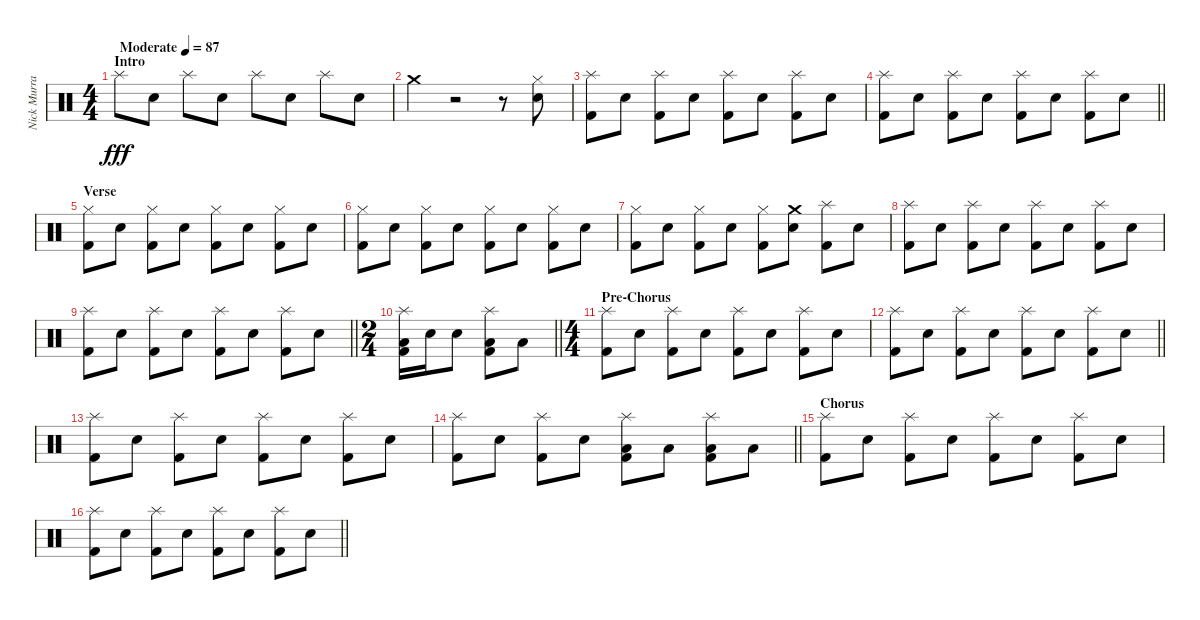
\track ("Nick Murray" "Nick Murra") {instrument percussion}
\staff {score}
\articulation defaults
\ts (4 4)
\section ("" "Intro")
\tempo (87 "Moderate")
\clef neutral
\ks c "Splash (hit)".8{dy fff} "Electric Snare (hit)".8 "Splash (hit)".8 "Electric Snare (hit)".8 "Splash (hit)".8 "Electric Snare (hit)".8 "Splash (hit)".8 "Electric Snare (hit)".8
|
"Crash medium (hit)".4 r.2 r.8 ("Hi-Hat (closed)" "Electric Snare (hit)").8 |
("Splash (hit)" "Kick (hit) 2").8 "Electric Snare (hit)".8 ("Splash (hit)" "Kick (hit) 2").8 "Electric Snare (hit)".8 ("Splash (hit)" "Kick (hit) 2").8 "Electric Snare (hit)".8 ("Splash (hit)" "Kick (hit) 2").8 "Electric Snare (hit)".8 |
\barLineRight lightlight
("Splash (hit)" "Kick (hit) 2").8 "Electric Snare (hit)".8 ("Splash (hit)" "Kick (hit) 2").8 "Electric Snare (hit)".8 ("Splash (hit)" "Kick (hit) 2").8 "Electric Snare (hit)".8 ("Splash (hit)" "Kick (hit) 2").8 "Electric Snare (hit)".8 |
\section ("" "Verse")
("Hi-Hat (closed)" "Kick (hit) 2").8 "Electric Snare (hit)".8 ("Hi-Hat (closed)" "Kick (hit) 2").8 "Electric Snare (hit)".8 ("Hi-Hat (closed)" "Kick (hit) 2").8 "Electric Snare (hit)".8 ("Hi-Hat (closed)" "Kick (hit) 2").8 "Electric Snare (hit)".8 |
("Hi-Hat (closed)" "Kick (hit) 2").8 "Electric Snare (hit)".8 ("Hi-Hat (closed)" "Kick (hit) 2").8 "Electric Snare (hit)".8 ("Hi-Hat (closed)" "Kick (hit) 2").8 "Electric Snare (hit)".8 ("Hi-Hat (closed)" "Kick (hit) 2").8 "Electric Snare (hit)".8 |
("Hi-Hat (closed)" "Kick (hit) 2").8 "Electric Snare (hit)".8 ("Hi-Hat (closed)" "Kick (hit) 2").8 "Electric Snare (hit)".8 ("Hi-Hat (closed)" "Kick (hit) 2").8 ("Crash medium (hit)" "Electric Snare (hit)").8 ("Splash (hit)" "Kick (hit) 2").8 "Electric Snare (hit)".8 |
("Splash (hit)" "Kick (hit) 2").8 "Electric Snare (hit)".8 ("Splash (hit)" "Kick (hit) 2").8 "Electric Snare (hit)".8 ("Splash (hit)" "Kick (hit) 2").8 "Electric Snare (hit)".8 ("Splash (hit)" "Kick (hit) 2").8 "Electric Snare (hit)".8 |
\barLineRight lightlight
("Splash (hit)" "Kick (hit) 2").8 "Electric Snare (hit)".8 ("Splash (hit)" "Kick (hit) 2").8 "Electric Snare (hit)".8 ("Splash (hit)" "Kick (hit) 2").8 "Electric Snare (hit)".8 ("Splash (hit)" "Kick (hit) 2").8 "Electric Snare (hit)".8 |
\ts (2 4)
\barLineRight lightlight
("Splash (hit)" "Low Floor Tom (hit)" "Kick (hit) 2").16 "Electric Snare (hit)".16 "Electric Snare (hit)".8 ("Splash (hit)" "Low Floor Tom (hit)" "Kick (hit) 2").8 "Low Floor Tom (hit)".8 |
\ts (4 4)
\section ("" "Pre-Chorus")
("Splash (hit)" "Kick (hit) 2").8 "Electric Snare (hit)".8 ("Splash (hit)" "Kick (hit) 2").8 "Electric Snare (hit)".8 ("Splash (hit)" "Kick (hit) 2").8 "Electric Snare (hit)".8 ("Splash (hit)" "Kick (hit) 2").8 "Electric Snare (hit)".8 |
\barLineRight lightlight
("Splash (hit)" "Kick (hit) 2").8 "Electric Snare (hit)".8 ("Splash (hit)" "Kick (hit) 2").8 "Electric Snare (hit)".8 ("Splash (hit)" "Kick (hit) 2").8 "Electric Snare (hit)".8 ("Splash (hit)" "Kick (hit) 2").8 "Electric Snare (hit)".8 |
("Splash (hit)" "Kick (hit) 2").8 "Electric Snare (hit)".8 ("Splash (hit)" "Kick (hit) 2").8 "Electric Snare (hit)".8 ("Splash (hit)" "Kick (hit) 2").8 "Electric Snare (hit)".8 ("Splash (hit)" "Kick (hit) 2").8 "Electric Snare (hit)".8 |
\barLineRight lightlight
("Splash (hit)" "Kick (hit) 2").8 "Electric Snare (hit)".8 ("Splash (hit)" "Kick (hit) 2").8 "Electric Snare (hit)".8 ("Splash (hit)" "Low Floor Tom (hit)" "Kick (hit) 2").8 "Low Floor Tom (hit)".8 ("Splash (hit)" "Low Floor Tom (hit)" "Kick (hit) 2").8 "Low Floor Tom (hit)".8 |
\section ("" "Chorus")
("Splash (hit)" "Kick (hit) 2").8 "Electric Snare (hit)".8 ("Splash (hit)" "Kick (hit) 2").8 "Electric Snare (hit)".8 ("Splash (hit)" "Kick (hit) 2").8 "Electric Snare (hit)".8 ("Splash (hit)" "Kick (hit) 2").8 "Electric Snare (hit)".8 |
\barLineRight lightlight
("Splash (hit)" "Kick (hit) 2").8 "Electric Snare (hit)".8 ("Splash (hit)" "Kick (hit) 2").8 "Electric Snare (hit)".8 ("Splash (hit)" "Kick (hit) 2").8 "Electric Snare (hit)".8 ("Splash (hit)" "Kick (hit) 2").8 "Electric Snare (hit)".8
